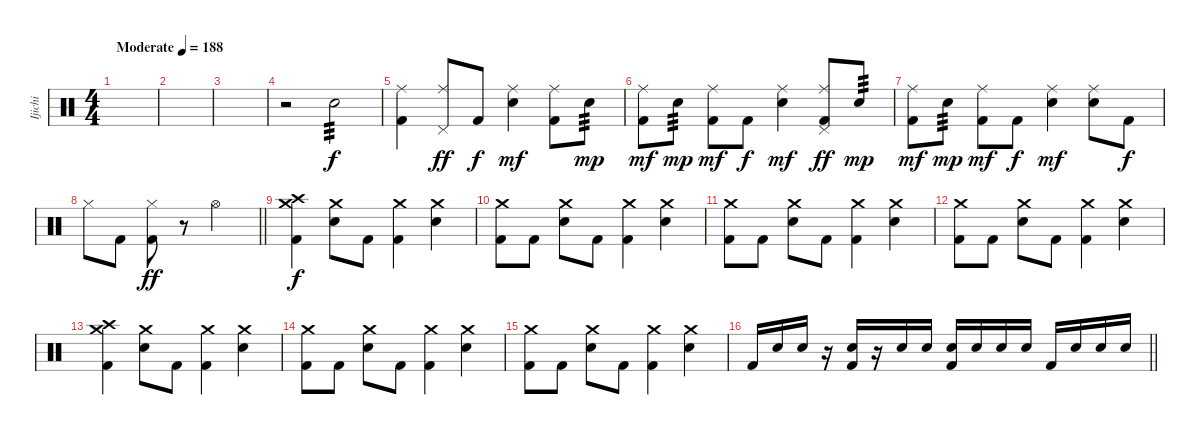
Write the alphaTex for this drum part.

\track ("Ijichi" "Ijichi") {instrument percussion}
\staff {score}
\articulation defaults
\ts (4 4)
\tempo (188 "Moderate")
\clef neutral
\ks c
|
|
|
r.2 "Electric Snare (hit)".2{tp 3} |
("Ride (middle)" "Kick (hit) 2").4 ("Ride (middle)" "Pedal Hi-Hat (hit)").8{dy ff} "Kick (hit) 2".8{dy f} ("Ride (middle)" "Electric Snare (hit)").4{dy mf} ("Ride (middle)" "Kick (hit) 2").8 "Electric Snare (hit)".8{tp 3 dy mp} |
("Ride (middle)" "Kick (hit) 2").8{dy mf} "Electric Snare (hit)".8{tp 3 dy mp} ("Ride (middle)" "Kick (hit) 2").8{dy mf} "Kick (hit) 2".8{dy f} ("Ride (middle)" "Electric Snare (hit)").4{dy mf} ("Ride (middle)" "Pedal Hi-Hat (hit)" "Kick (hit) 2").8{dy ff} "Electric Snare (hit)".8{tp 3 dy mp} |
("Ride (middle)" "Kick (hit) 2").8{dy mf} "Electric Snare (hit)".8{tp 3 dy mp} ("Ride (middle)" "Kick (hit) 2").8{dy mf} "Kick (hit) 2".8{dy f} ("Ride (middle)" "Electric Snare (hit)").4{dy mf} ("Ride (middle)" "Electric Snare (hit)").8 "Kick (hit) 2".8{dy f} |
\barLineRight lightlight "Hi-Hat (closed)".8 "Kick (hit) 2".8
("Hi-Hat (closed)" "Kick (hit) 2").8{dy ff} r.8 "Hi-Hat (open)".2 |
("Crash high (hit)" "Crash medium (hit)" "Kick (hit) 2").4{dy f} ("Crash medium (hit)" "Electric Snare (hit)").8 "Kick (hit) 2".8 ("Crash medium (hit)" "Kick (hit) 2").4 ("Crash medium (hit)" "Electric Snare (hit)").4 |
("Crash medium (hit)" "Kick (hit) 2").8 "Kick (hit) 2".8 ("Crash medium (hit)" "Electric Snare (hit)").8 "Kick (hit) 2".8 ("Crash medium (hit)" "Kick (hit) 2").4 ("Crash medium (hit)" "Electric Snare (hit)").4 |
("Crash medium (hit)" "Kick (hit) 2").8 "Kick (hit) 2".8 ("Crash medium (hit)" "Electric Snare (hit)").8 "Kick (hit) 2".8 ("Crash medium (hit)" "Kick (hit) 2").4 ("Crash medium (hit)" "Electric Snare (hit)").4 |
("Crash medium (hit)" "Kick (hit) 2").8 "Kick (hit) 2".8 ("Crash medium (hit)" "Electric Snare (hit)").8 "Kick (hit) 2".8 ("Crash medium (hit)" "Kick (hit) 2").4 ("Crash medium (hit)" "Electric Snare (hit)").4 |
("Crash high (hit)" "Crash medium (hit)" "Kick (hit) 2").4 ("Crash medium (hit)" "Electric Snare (hit)").8 "Kick (hit) 2".8 ("Crash medium (hit)" "Kick (hit) 2").4 ("Crash medium (hit)" "Electric Snare (hit)").4 |
("Crash medium (hit)" "Kick (hit) 2").8 "Kick (hit) 2".8 ("Crash medium (hit)" "Electric Snare (hit)").8 "Kick (hit) 2".8 ("Crash medium (hit)" "Kick (hit) 2").4 ("Crash medium (hit)" "Electric Snare (hit)").4 |
("Crash medium (hit)" "Kick (hit) 2").8 "Kick (hit) 2".8 ("Crash medium (hit)" "Electric Snare (hit)").8 "Kick (hit) 2".8 ("Crash medium (hit)" "Kick (hit) 2").4 ("Crash medium (hit)" "Electric Snare (hit)").4 |
\barLineRight lightlight "Kick (hit) 2".16 "Electric Snare (hit)".16 "Electric Snare (hit)".16
r.16 ("Electric Snare (hit)" "Kick (hit) 2").16 r.16 "Electric Snare (hit)".16 "Electric Snare (hit)".16 ("Electric Snare (hit)" "Kick (hit) 2").16 "Electric Snare (hit)".16 "Electric Snare (hit)".16 "Electric Snare (hit)".16 "Kick (hit) 2".16 "Electric Snare (hit)".16 "Electric Snare (hit)".16 "Electric Snare (hit)".16
